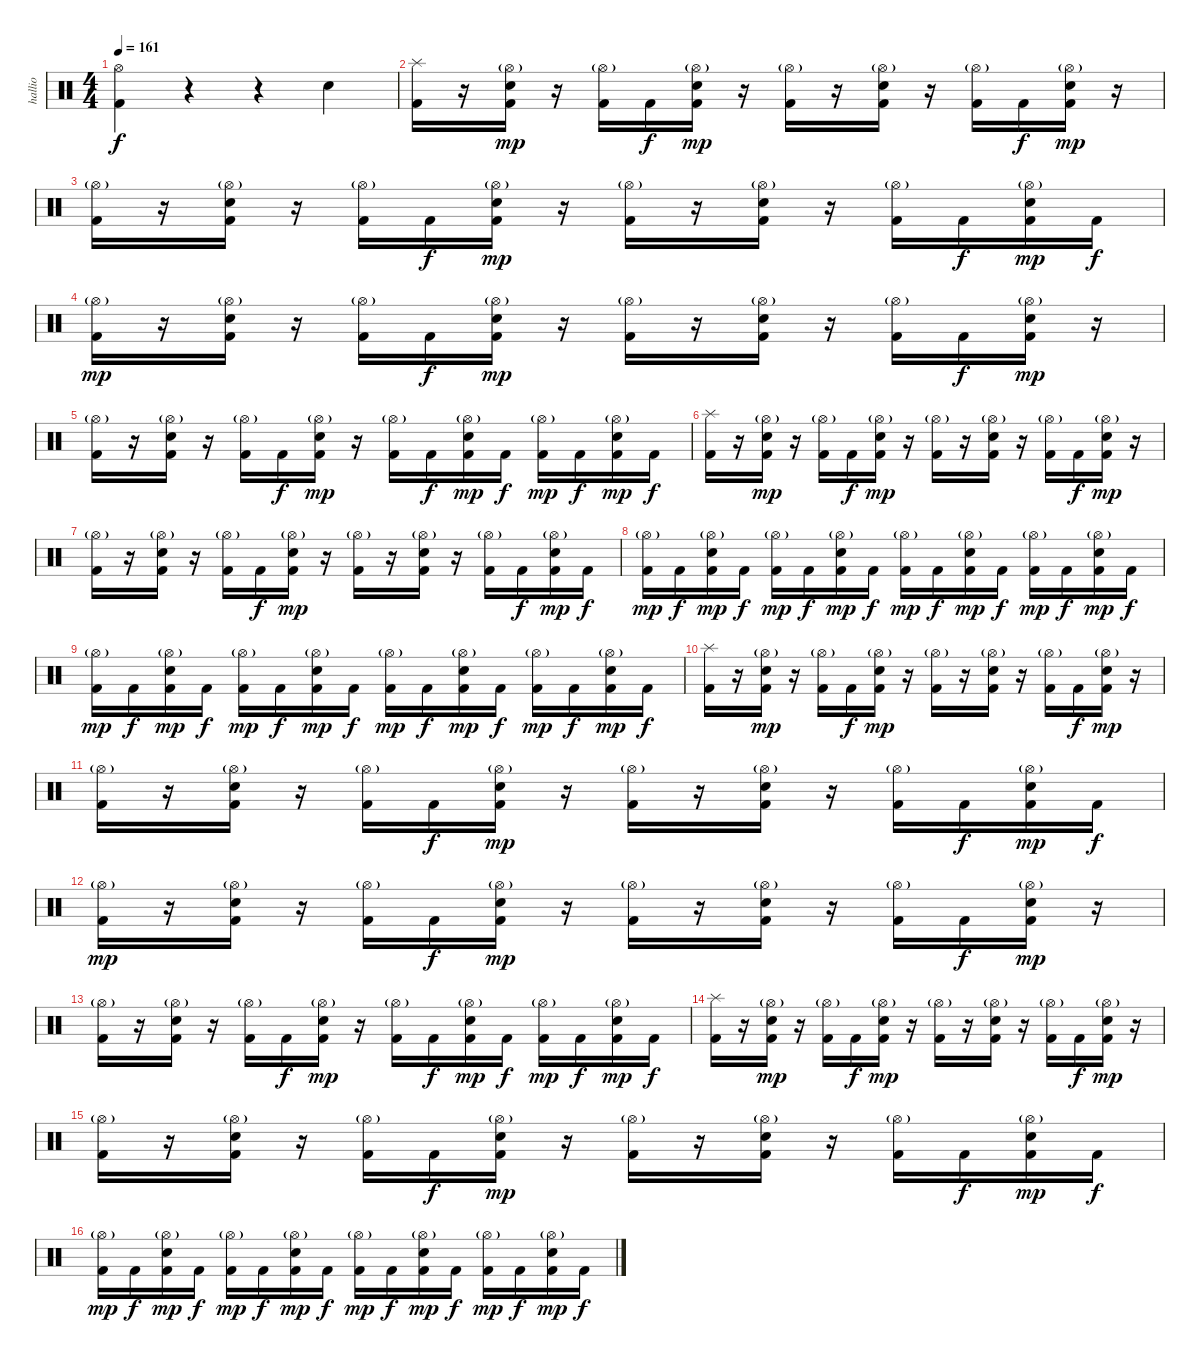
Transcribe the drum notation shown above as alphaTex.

\track ("hallio" "hallio") {instrument percussion}
\staff {score}
\articulation defaults
\ts (4 4)
\tempo 161
\clef neutral
\ks c
("Kick (hit) 2" "Hi-Hat (open)").4{dy f} r.4 r.4 "Snare (hit) 2".4 |
("Kick (hit) 2" "Splash (hit)").16 r.16 ("Kick (hit) 2" "Snare (hit) 2" "Hi-Hat (open)"{g}).16{dy mp} r.16 ("Kick (hit) 2" "Hi-Hat (open)"{g}).16 "Kick (hit) 2".16{dy f} ("Kick (hit) 2" "Snare (hit) 2" "Hi-Hat (open)"{g}).16{dy mp} r.16 ("Kick (hit) 2" "Hi-Hat (open)"{g}).16 r.16 ("Kick (hit) 2" "Snare (hit) 2" "Hi-Hat (open)"{g}).16 r.16 ("Kick (hit) 2" "Hi-Hat (open)"{g}).16 "Kick (hit) 2".16{dy f} ("Kick (hit) 2" "Snare (hit) 2" "Hi-Hat (open)"{g}).16{dy mp} r.16 |
("Kick (hit) 2" "Hi-Hat (open)"{g}).16 r.16 ("Kick (hit) 2" "Snare (hit) 2" "Hi-Hat (open)"{g}).16 r.16 ("Kick (hit) 2" "Hi-Hat (open)"{g}).16 "Kick (hit) 2".16{dy f} ("Kick (hit) 2" "Snare (hit) 2" "Hi-Hat (open)"{g}).16{dy mp} r.16 ("Kick (hit) 2" "Hi-Hat (open)"{g}).16 r.16 ("Kick (hit) 2" "Snare (hit) 2" "Hi-Hat (open)"{g}).16 r.16 ("Kick (hit) 2" "Hi-Hat (open)"{g}).16 "Kick (hit) 2".16{dy f} ("Kick (hit) 2" "Snare (hit) 2" "Hi-Hat (open)"{g}).16{dy mp} "Kick (hit) 2".16{dy f} |
("Kick (hit) 2" "Hi-Hat (open)"{g}).16{dy mp} r.16 ("Kick (hit) 2" "Snare (hit) 2" "Hi-Hat (open)"{g}).16 r.16 ("Kick (hit) 2" "Hi-Hat (open)"{g}).16 "Kick (hit) 2".16{dy f} ("Kick (hit) 2" "Snare (hit) 2" "Hi-Hat (open)"{g}).16{dy mp} r.16 ("Kick (hit) 2" "Hi-Hat (open)"{g}).16 r.16 ("Kick (hit) 2" "Snare (hit) 2" "Hi-Hat (open)"{g}).16 r.16 ("Kick (hit) 2" "Hi-Hat (open)"{g}).16 "Kick (hit) 2".16{dy f} ("Kick (hit) 2" "Snare (hit) 2" "Hi-Hat (open)"{g}).16{dy mp} r.16 |
("Kick (hit) 2" "Hi-Hat (open)"{g}).16 r.16 ("Kick (hit) 2" "Snare (hit) 2" "Hi-Hat (open)"{g}).16 r.16 ("Kick (hit) 2" "Hi-Hat (open)"{g}).16 "Kick (hit) 2".16{dy f} ("Kick (hit) 2" "Snare (hit) 2" "Hi-Hat (open)"{g}).16{dy mp} r.16 ("Kick (hit) 2" "Hi-Hat (open)"{g}).16 "Kick (hit) 2".16{dy f} ("Kick (hit) 2" "Snare (hit) 2" "Hi-Hat (open)"{g}).16{dy mp} "Kick (hit) 2".16{dy f} ("Kick (hit) 2" "Hi-Hat (open)"{g}).16{dy mp} "Kick (hit) 2".16{dy f} ("Kick (hit) 2" "Snare (hit) 2" "Hi-Hat (open)"{g}).16{dy mp} "Kick (hit) 2".16{dy f} |
("Kick (hit) 2" "Splash (hit)").16 r.16 ("Kick (hit) 2" "Snare (hit) 2" "Hi-Hat (open)"{g}).16{dy mp} r.16 ("Kick (hit) 2" "Hi-Hat (open)"{g}).16 "Kick (hit) 2".16{dy f} ("Kick (hit) 2" "Snare (hit) 2" "Hi-Hat (open)"{g}).16{dy mp} r.16 ("Kick (hit) 2" "Hi-Hat (open)"{g}).16 r.16 ("Kick (hit) 2" "Snare (hit) 2" "Hi-Hat (open)"{g}).16 r.16 ("Kick (hit) 2" "Hi-Hat (open)"{g}).16 "Kick (hit) 2".16{dy f} ("Kick (hit) 2" "Snare (hit) 2" "Hi-Hat (open)"{g}).16{dy mp} r.16 |
("Kick (hit) 2" "Hi-Hat (open)"{g}).16 r.16 ("Kick (hit) 2" "Snare (hit) 2" "Hi-Hat (open)"{g}).16 r.16 ("Kick (hit) 2" "Hi-Hat (open)"{g}).16 "Kick (hit) 2".16{dy f} ("Kick (hit) 2" "Snare (hit) 2" "Hi-Hat (open)"{g}).16{dy mp} r.16 ("Kick (hit) 2" "Hi-Hat (open)"{g}).16 r.16 ("Kick (hit) 2" "Snare (hit) 2" "Hi-Hat (open)"{g}).16 r.16 ("Kick (hit) 2" "Hi-Hat (open)"{g}).16 "Kick (hit) 2".16{dy f} ("Kick (hit) 2" "Snare (hit) 2" "Hi-Hat (open)"{g}).16{dy mp} "Kick (hit) 2".16{dy f} |
("Kick (hit) 2" "Hi-Hat (open)"{g}).16{dy mp} "Kick (hit) 2".16{dy f} ("Kick (hit) 2" "Snare (hit) 2" "Hi-Hat (open)"{g}).16{dy mp} "Kick (hit) 2".16{dy f} ("Kick (hit) 2" "Hi-Hat (open)"{g}).16{dy mp} "Kick (hit) 2".16{dy f} ("Kick (hit) 2" "Snare (hit) 2" "Hi-Hat (open)"{g}).16{dy mp} "Kick (hit) 2".16{dy f} ("Kick (hit) 2" "Hi-Hat (open)"{g}).16{dy mp} "Kick (hit) 2".16{dy f} ("Kick (hit) 2" "Snare (hit) 2" "Hi-Hat (open)"{g}).16{dy mp} "Kick (hit) 2".16{dy f} ("Kick (hit) 2" "Hi-Hat (open)"{g}).16{dy mp} "Kick (hit) 2".16{dy f} ("Kick (hit) 2" "Snare (hit) 2" "Hi-Hat (open)"{g}).16{dy mp} "Kick (hit) 2".16{dy f} |
("Kick (hit) 2" "Hi-Hat (open)"{g}).16{dy mp} "Kick (hit) 2".16{dy f} ("Kick (hit) 2" "Snare (hit) 2" "Hi-Hat (open)"{g}).16{dy mp} "Kick (hit) 2".16{dy f} ("Kick (hit) 2" "Hi-Hat (open)"{g}).16{dy mp} "Kick (hit) 2".16{dy f} ("Kick (hit) 2" "Snare (hit) 2" "Hi-Hat (open)"{g}).16{dy mp} "Kick (hit) 2".16{dy f} ("Kick (hit) 2" "Hi-Hat (open)"{g}).16{dy mp} "Kick (hit) 2".16{dy f} ("Kick (hit) 2" "Snare (hit) 2" "Hi-Hat (open)"{g}).16{dy mp} "Kick (hit) 2".16{dy f} ("Kick (hit) 2" "Hi-Hat (open)"{g}).16{dy mp} "Kick (hit) 2".16{dy f} ("Kick (hit) 2" "Snare (hit) 2" "Hi-Hat (open)"{g}).16{dy mp} "Kick (hit) 2".16{dy f} |
("Kick (hit) 2" "Splash (hit)").16 r.16 ("Kick (hit) 2" "Snare (hit) 2" "Hi-Hat (open)"{g}).16{dy mp} r.16 ("Kick (hit) 2" "Hi-Hat (open)"{g}).16 "Kick (hit) 2".16{dy f} ("Kick (hit) 2" "Snare (hit) 2" "Hi-Hat (open)"{g}).16{dy mp} r.16 ("Kick (hit) 2" "Hi-Hat (open)"{g}).16 r.16 ("Kick (hit) 2" "Snare (hit) 2" "Hi-Hat (open)"{g}).16 r.16 ("Kick (hit) 2" "Hi-Hat (open)"{g}).16 "Kick (hit) 2".16{dy f} ("Kick (hit) 2" "Snare (hit) 2" "Hi-Hat (open)"{g}).16{dy mp} r.16 |
("Kick (hit) 2" "Hi-Hat (open)"{g}).16 r.16 ("Kick (hit) 2" "Snare (hit) 2" "Hi-Hat (open)"{g}).16 r.16 ("Kick (hit) 2" "Hi-Hat (open)"{g}).16 "Kick (hit) 2".16{dy f} ("Kick (hit) 2" "Snare (hit) 2" "Hi-Hat (open)"{g}).16{dy mp} r.16 ("Kick (hit) 2" "Hi-Hat (open)"{g}).16 r.16 ("Kick (hit) 2" "Snare (hit) 2" "Hi-Hat (open)"{g}).16 r.16 ("Kick (hit) 2" "Hi-Hat (open)"{g}).16 "Kick (hit) 2".16{dy f} ("Kick (hit) 2" "Snare (hit) 2" "Hi-Hat (open)"{g}).16{dy mp} "Kick (hit) 2".16{dy f} |
("Kick (hit) 2" "Hi-Hat (open)"{g}).16{dy mp} r.16 ("Kick (hit) 2" "Snare (hit) 2" "Hi-Hat (open)"{g}).16 r.16 ("Kick (hit) 2" "Hi-Hat (open)"{g}).16 "Kick (hit) 2".16{dy f} ("Kick (hit) 2" "Snare (hit) 2" "Hi-Hat (open)"{g}).16{dy mp} r.16 ("Kick (hit) 2" "Hi-Hat (open)"{g}).16 r.16 ("Kick (hit) 2" "Snare (hit) 2" "Hi-Hat (open)"{g}).16 r.16 ("Kick (hit) 2" "Hi-Hat (open)"{g}).16 "Kick (hit) 2".16{dy f} ("Kick (hit) 2" "Snare (hit) 2" "Hi-Hat (open)"{g}).16{dy mp} r.16 |
("Kick (hit) 2" "Hi-Hat (open)"{g}).16 r.16 ("Kick (hit) 2" "Snare (hit) 2" "Hi-Hat (open)"{g}).16 r.16 ("Kick (hit) 2" "Hi-Hat (open)"{g}).16 "Kick (hit) 2".16{dy f} ("Kick (hit) 2" "Snare (hit) 2" "Hi-Hat (open)"{g}).16{dy mp} r.16 ("Kick (hit) 2" "Hi-Hat (open)"{g}).16 "Kick (hit) 2".16{dy f} ("Kick (hit) 2" "Snare (hit) 2" "Hi-Hat (open)"{g}).16{dy mp} "Kick (hit) 2".16{dy f} ("Kick (hit) 2" "Hi-Hat (open)"{g}).16{dy mp} "Kick (hit) 2".16{dy f} ("Kick (hit) 2" "Snare (hit) 2" "Hi-Hat (open)"{g}).16{dy mp} "Kick (hit) 2".16{dy f} |
("Kick (hit) 2" "Splash (hit)").16 r.16 ("Kick (hit) 2" "Snare (hit) 2" "Hi-Hat (open)"{g}).16{dy mp} r.16 ("Kick (hit) 2" "Hi-Hat (open)"{g}).16 "Kick (hit) 2".16{dy f} ("Kick (hit) 2" "Snare (hit) 2" "Hi-Hat (open)"{g}).16{dy mp} r.16 ("Kick (hit) 2" "Hi-Hat (open)"{g}).16 r.16 ("Kick (hit) 2" "Snare (hit) 2" "Hi-Hat (open)"{g}).16 r.16 ("Kick (hit) 2" "Hi-Hat (open)"{g}).16 "Kick (hit) 2".16{dy f} ("Kick (hit) 2" "Snare (hit) 2" "Hi-Hat (open)"{g}).16{dy mp} r.16 |
("Kick (hit) 2" "Hi-Hat (open)"{g}).16 r.16 ("Kick (hit) 2" "Snare (hit) 2" "Hi-Hat (open)"{g}).16 r.16 ("Kick (hit) 2" "Hi-Hat (open)"{g}).16 "Kick (hit) 2".16{dy f} ("Kick (hit) 2" "Snare (hit) 2" "Hi-Hat (open)"{g}).16{dy mp} r.16 ("Kick (hit) 2" "Hi-Hat (open)"{g}).16 r.16 ("Kick (hit) 2" "Snare (hit) 2" "Hi-Hat (open)"{g}).16 r.16 ("Kick (hit) 2" "Hi-Hat (open)"{g}).16 "Kick (hit) 2".16{dy f} ("Kick (hit) 2" "Snare (hit) 2" "Hi-Hat (open)"{g}).16{dy mp} "Kick (hit) 2".16{dy f} |
("Kick (hit) 2" "Hi-Hat (open)"{g}).16{dy mp} "Kick (hit) 2".16{dy f} ("Kick (hit) 2" "Snare (hit) 2" "Hi-Hat (open)"{g}).16{dy mp} "Kick (hit) 2".16{dy f} ("Kick (hit) 2" "Hi-Hat (open)"{g}).16{dy mp} "Kick (hit) 2".16{dy f} ("Kick (hit) 2" "Snare (hit) 2" "Hi-Hat (open)"{g}).16{dy mp} "Kick (hit) 2".16{dy f} ("Kick (hit) 2" "Hi-Hat (open)"{g}).16{dy mp} "Kick (hit) 2".16{dy f} ("Kick (hit) 2" "Snare (hit) 2" "Hi-Hat (open)"{g}).16{dy mp} "Kick (hit) 2".16{dy f} ("Kick (hit) 2" "Hi-Hat (open)"{g}).16{dy mp} "Kick (hit) 2".16{dy f} ("Kick (hit) 2" "Snare (hit) 2" "Hi-Hat (open)"{g}).16{dy mp} "Kick (hit) 2".16{dy f}
